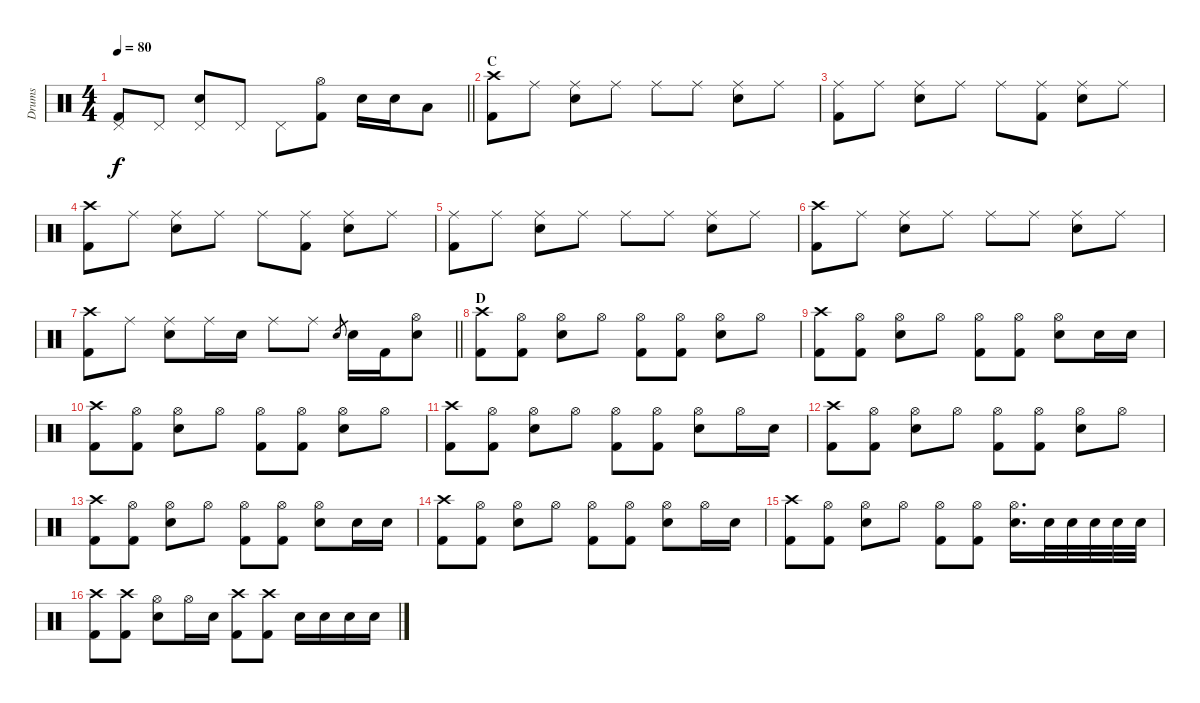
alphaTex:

\track ("Drums" "Drums") {instrument percussion}
\staff {score}
\articulation defaults
\ts (4 4)
\tempo 80
\clef neutral
\barLineRight lightlight
\ks c
("Pedal Hi-Hat (hit)" "Kick (hit) 2").8{dy f} "Pedal Hi-Hat (hit)".8 ("Pedal Hi-Hat (hit)" "Snare (hit) 2").8 "Pedal Hi-Hat (hit)".8 "Pedal Hi-Hat (hit)".8 ("Hi-Hat (open)" "Kick (hit) 2").8 "Snare (hit) 2".16 "Snare (hit) 2".16 "Low Tom (hit)".8 |
\section ("" "C")
("Crash high (hit)" "Kick (hit) 2").8 "Ride (middle)".8 ("Ride (middle)" "Snare (hit) 2").8 "Ride (middle)".8 "Ride (middle)".8 "Ride (middle)".8 ("Ride (middle)" "Snare (hit) 2").8 "Ride (middle)".8 |
("Ride (middle)" "Kick (hit) 2").8 "Ride (middle)".8 ("Ride (middle)" "Snare (hit) 2").8 "Ride (middle)".8 "Ride (middle)".8 ("Ride (middle)" "Kick (hit) 2").8 ("Ride (middle)" "Snare (hit) 2").8 "Ride (middle)".8 |
("Crash high (hit)" "Kick (hit) 2").8 "Ride (middle)".8 ("Ride (middle)" "Snare (hit) 2").8 "Ride (middle)".8 "Ride (middle)".8 ("Ride (middle)" "Kick (hit) 2").8 ("Ride (middle)" "Snare (hit) 2").8 "Ride (middle)".8 |
("Ride (middle)" "Kick (hit) 2").8 "Ride (middle)".8 ("Ride (middle)" "Snare (hit) 2").8 "Ride (middle)".8 "Ride (middle)".8 "Ride (middle)".8 ("Ride (middle)" "Snare (hit) 2").8 "Ride (middle)".8 |
("Crash high (hit)" "Kick (hit) 2").8 "Ride (middle)".8 ("Ride (middle)" "Snare (hit) 2").8 "Ride (middle)".8 "Ride (middle)".8 "Ride (middle)".8 ("Ride (middle)" "Snare (hit) 2").8 "Ride (middle)".8 |
\barLineRight lightlight
("Crash high (hit)" "Kick (hit) 2").8 "Ride (middle)".8 ("Ride (middle)" "Snare (hit) 2").8 "Ride (middle)".16 "Snare (hit) 2".16 "Ride (middle)".8 "Ride (middle)".8 "Snare (hit) 2".8{gr} "Snare (hit) 2".16 "Kick (hit) 2".16 ("Hi-Hat (open)" "Snare (hit) 2").8 |
\section ("" "D")
("Crash high (hit)" "Kick (hit) 2").8 ("Hi-Hat (open)" "Kick (hit) 2").8 ("Hi-Hat (open)" "Snare (hit) 2").8 "Hi-Hat (open)".8 ("Hi-Hat (open)" "Kick (hit) 2").8 ("Hi-Hat (open)" "Kick (hit) 2").8 ("Hi-Hat (open)" "Snare (hit) 2").8 "Hi-Hat (open)".8 |
("Crash high (hit)" "Kick (hit) 2").8 ("Hi-Hat (open)" "Kick (hit) 2").8 ("Hi-Hat (open)" "Snare (hit) 2").8 "Hi-Hat (open)".8 ("Hi-Hat (open)" "Kick (hit) 2").8 ("Hi-Hat (open)" "Kick (hit) 2").8 ("Hi-Hat (open)" "Snare (hit) 2").8 "Snare (hit) 2".16 "Snare (hit) 2".16 |
("Crash high (hit)" "Kick (hit) 2").8 ("Hi-Hat (open)" "Kick (hit) 2").8 ("Hi-Hat (open)" "Snare (hit) 2").8 "Hi-Hat (open)".8 ("Hi-Hat (open)" "Kick (hit) 2").8 ("Hi-Hat (open)" "Kick (hit) 2").8 ("Hi-Hat (open)" "Snare (hit) 2").8 "Hi-Hat (open)".8 |
("Crash high (hit)" "Kick (hit) 2").8 ("Hi-Hat (open)" "Kick (hit) 2").8 ("Hi-Hat (open)" "Snare (hit) 2").8 "Hi-Hat (open)".8 ("Hi-Hat (open)" "Kick (hit) 2").8 ("Hi-Hat (open)" "Kick (hit) 2").8 ("Hi-Hat (open)" "Snare (hit) 2").8 "Hi-Hat (open)".16 "Snare (hit) 2".16 |
("Crash high (hit)" "Kick (hit) 2").8 ("Hi-Hat (open)" "Kick (hit) 2").8 ("Hi-Hat (open)" "Snare (hit) 2").8 "Hi-Hat (open)".8 ("Hi-Hat (open)" "Kick (hit) 2").8 ("Hi-Hat (open)" "Kick (hit) 2").8 ("Hi-Hat (open)" "Snare (hit) 2").8 "Hi-Hat (open)".8 |
("Crash high (hit)" "Kick (hit) 2").8 ("Hi-Hat (open)" "Kick (hit) 2").8 ("Hi-Hat (open)" "Snare (hit) 2").8 "Hi-Hat (open)".8 ("Hi-Hat (open)" "Kick (hit) 2").8 ("Hi-Hat (open)" "Kick (hit) 2").8 ("Hi-Hat (open)" "Snare (hit) 2").8 "Snare (hit) 2".16 "Snare (hit) 2".16 |
("Crash high (hit)" "Kick (hit) 2").8 ("Hi-Hat (open)" "Kick (hit) 2").8 ("Hi-Hat (open)" "Snare (hit) 2").8 "Hi-Hat (open)".8 ("Hi-Hat (open)" "Kick (hit) 2").8 ("Hi-Hat (open)" "Kick (hit) 2").8 ("Hi-Hat (open)" "Snare (hit) 2").8 "Hi-Hat (open)".16 "Snare (hit) 2".16 |
("Crash high (hit)" "Kick (hit) 2").8 ("Hi-Hat (open)" "Kick (hit) 2").8 ("Hi-Hat (open)" "Snare (hit) 2").8 "Hi-Hat (open)".8 ("Hi-Hat (open)" "Kick (hit) 2").8 ("Hi-Hat (open)" "Kick (hit) 2").8 ("Hi-Hat (open)" "Snare (hit) 2").16{d} "Snare (hit) 2".32 "Snare (hit) 2".32 "Snare (hit) 2".32 "Snare (hit) 2".32 "Snare (hit) 2".32 |
("Crash high (hit)" "Kick (hit) 2").8 ("Crash high (hit)" "Kick (hit) 2").8 ("Hi-Hat (open)" "Snare (hit) 2").8 "Hi-Hat (open)".16 "Snare (hit) 2".16 ("Crash high (hit)" "Kick (hit) 2").8 ("Crash high (hit)" "Kick (hit) 2").8 "Snare (hit) 2".16 "Snare (hit) 2".16 "Snare (hit) 2".16 "Snare (hit) 2".16
